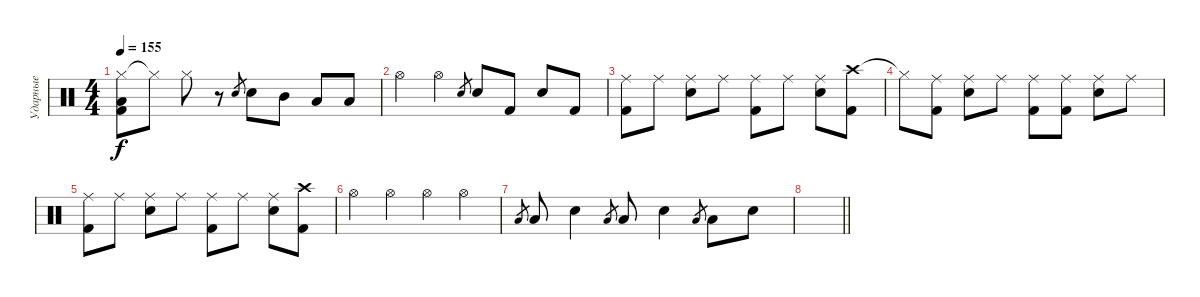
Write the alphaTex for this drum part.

\track ("Ударные" "Ударные") {solo instrument percussion}
\staff {score}
\articulation defaults
\ts (4 4)
\tempo 155
\clef neutral
\ks c
("Hi-Hat (closed)" "Low Tom (hit)" "Kick (hit) 2").8{dy f} "Hi-Hat (closed)"{t}.8 "Hi-Hat (closed)".8 r.8 "Electric Snare (hit)".8{gr} "Electric Snare (hit)".8 "Mid Tom (hit)".8 "Low Tom (hit)".8 "Low Tom (hit)".8 |
"Hi-Hat (open)".4 "Hi-Hat (open)".4 "Electric Snare (hit)".8{gr} "Electric Snare (hit)".8 "Kick (hit) 2".8 "Electric Snare (hit)".8 "Kick (hit) 2".8 |
("Ride (middle)" "Kick (hit) 2").8 "Ride (middle)".8 ("Ride (middle)" "Electric Snare (hit)").8 "Ride (middle)".8 ("Ride (middle)" "Kick (hit) 2").8 "Ride (middle)".8 ("Ride (middle)" "Electric Snare (hit)").8 ("Crash high (hit)" "Kick (hit) 2").8 |
"Hi-Hat (closed)"{t}.8 ("Ride (middle)" "Kick (hit) 2").8 ("Ride (middle)" "Electric Snare (hit)").8 "Ride (middle)".8 ("Ride (middle)" "Kick (hit) 2").8 ("Ride (middle)" "Kick (hit) 2").8 ("Ride (middle)" "Electric Snare (hit)").8 "Ride (middle)".8 |
("Ride (middle)" "Kick (hit) 2").8 "Ride (middle)".8 ("Ride (middle)" "Electric Snare (hit)").8 "Ride (middle)".8 ("Ride (middle)" "Kick (hit) 2").8 "Ride (middle)".8 ("Ride (middle)" "Electric Snare (hit)").8 ("Crash high (hit)" "Kick (hit) 2").8 |
"Hi-Hat (open)".4 "Hi-Hat (open)".4 "Hi-Hat (open)".4 "Hi-Hat (open)".4 |
"Low Tom (hit)".8{gr} "Low Tom (hit)".8 "Electric Snare (hit)".4 "Low Tom (hit)".8{gr} "Low Tom (hit)".8 "Electric Snare (hit)".4 "Low Tom (hit)".8{gr} "Low Tom (hit)".8 "Electric Snare (hit)".8 |
\barLineRight lightlight
